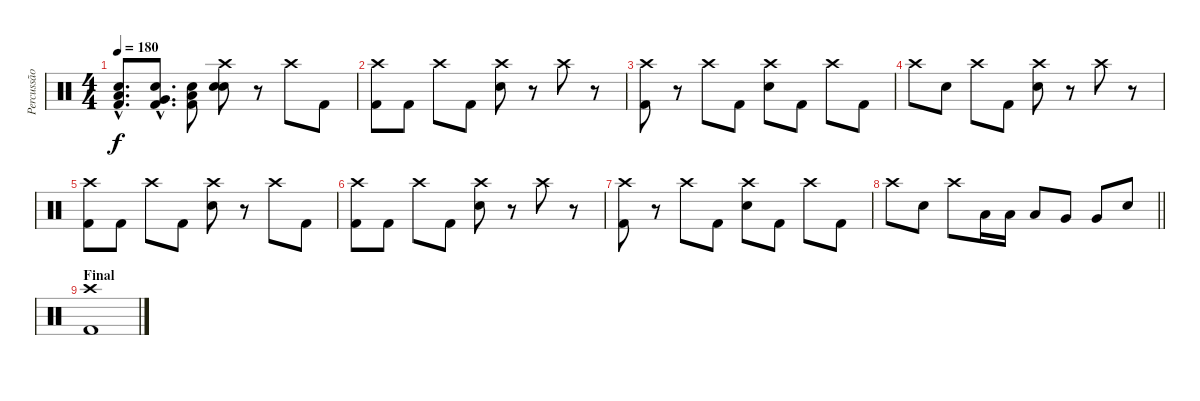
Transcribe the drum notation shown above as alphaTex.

\track ("Percussão" "Percussão") {instrument percussion}
\staff {score}
\articulation defaults
\ts (4 4)
\tempo 180
\clef neutral
\ks c
("Low Tom (hit)"{hac} "Electric Snare (hit)"{hac} "Kick (hit) 2"{hac}).8{d dy f} ("Very Low Tom (hit)"{hac} "Electric Snare (hit)"{hac} "Kick (hit) 2"{hac}).8{d} ("Low Floor Tom (hit)" "Electric Snare (hit)" "Kick (hit) 2").8 ("Crash high (hit)" "Electric Snare (hit)" "Electric Snare (hit)").8 r.8 "Crash high (hit)".8 "Kick (hit) 2".8 |
("Crash high (hit)" "Kick (hit) 2").8 "Kick (hit) 2".8 "Crash high (hit)".8 "Kick (hit) 2".8 ("Crash high (hit)" "Electric Snare (hit)").8 r.8 "Crash high (hit)".8 r.8 |
("Crash high (hit)" "Kick (hit) 2").8 r.8 "Crash high (hit)".8 "Kick (hit) 2".8 ("Crash high (hit)" "Electric Snare (hit)").8 "Kick (hit) 2".8 "Crash high (hit)".8 "Kick (hit) 2".8 |
"Crash high (hit)".8 "Electric Snare (hit)".8 "Crash high (hit)".8 "Kick (hit) 2".8 ("Crash high (hit)" "Electric Snare (hit)").8 r.8 "Crash high (hit)".8 r.8 |
("Crash high (hit)" "Kick (hit) 2").8 "Kick (hit) 2".8 "Crash high (hit)".8 "Kick (hit) 2".8 ("Crash high (hit)" "Electric Snare (hit)").8 r.8 "Crash high (hit)".8 "Kick (hit) 2".8 |
("Crash high (hit)" "Kick (hit) 2").8 "Kick (hit) 2".8 "Crash high (hit)".8 "Kick (hit) 2".8 ("Crash high (hit)" "Electric Snare (hit)").8 r.8 "Crash high (hit)".8 r.8 |
("Crash high (hit)" "Kick (hit) 2").8 r.8 "Crash high (hit)".8 "Kick (hit) 2".8 ("Crash high (hit)" "Electric Snare (hit)").8 "Kick (hit) 2".8 "Crash high (hit)".8 "Kick (hit) 2".8 |
\barLineRight lightlight "Crash high (hit)".8 "Electric Snare (hit)".8 "Crash high (hit)".8 "Low Tom (hit)".16 "Low Tom (hit)".16 "Low Tom (hit)".8 "Very Low Tom (hit)".8 "Very Low Tom (hit)".8 "Electric Snare (hit)".8
|
\section ("" "Final")
("Crash high (hit)" "Kick (hit) 2").1
